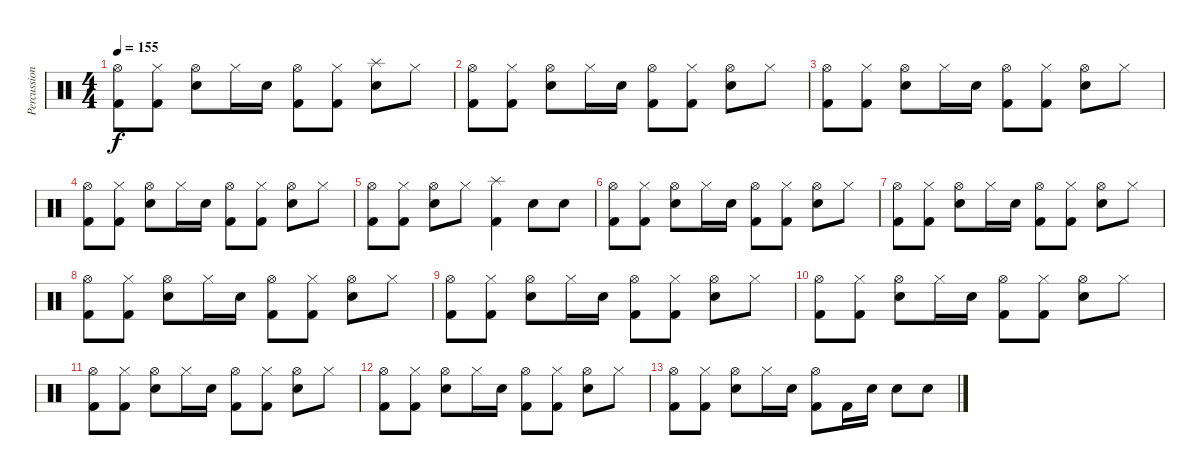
\track ("Percussion" "Percussion") {instrument percussion}
\staff {score}
\articulation defaults
\ts (4 4)
\tempo 155
\clef neutral
\ks c
("Hi-Hat (open)" "Kick (hit) 2").8{dy f} ("Hi-Hat (closed)" "Kick (hit) 2").8 ("Hi-Hat (open)" "Snare (hit) 2").8 "Hi-Hat (closed)".16 "Snare (hit) 2".16 ("Hi-Hat (open)" "Kick (hit) 2").8 ("Hi-Hat (closed)" "Kick (hit) 2").8 ("Splash (hit)" "Snare (hit) 2").8 "Hi-Hat (closed)".8 |
("Hi-Hat (open)" "Kick (hit) 2").8 ("Hi-Hat (closed)" "Kick (hit) 2").8 ("Hi-Hat (open)" "Snare (hit) 2").8 "Hi-Hat (closed)".16 "Snare (hit) 2".16 ("Hi-Hat (open)" "Kick (hit) 2").8 ("Hi-Hat (closed)" "Kick (hit) 2").8 ("Hi-Hat (open)" "Snare (hit) 2").8 "Hi-Hat (closed)".8 |
("Hi-Hat (open)" "Kick (hit) 2").8 ("Hi-Hat (closed)" "Kick (hit) 2").8 ("Hi-Hat (open)" "Snare (hit) 2").8 "Hi-Hat (closed)".16 "Snare (hit) 2".16 ("Hi-Hat (open)" "Kick (hit) 2").8 ("Hi-Hat (closed)" "Kick (hit) 2").8 ("Hi-Hat (open)" "Snare (hit) 2").8 "Hi-Hat (closed)".8 |
("Hi-Hat (open)" "Kick (hit) 2").8 ("Hi-Hat (closed)" "Kick (hit) 2").8 ("Hi-Hat (open)" "Snare (hit) 2").8 "Hi-Hat (closed)".16 "Snare (hit) 2".16 ("Hi-Hat (open)" "Kick (hit) 2").8 ("Hi-Hat (closed)" "Kick (hit) 2").8 ("Hi-Hat (open)" "Snare (hit) 2").8 "Hi-Hat (closed)".8 |
("Hi-Hat (open)" "Kick (hit) 2").8 ("Hi-Hat (closed)" "Kick (hit) 2").8 ("Hi-Hat (open)" "Snare (hit) 2").8 "Hi-Hat (closed)".8 ("Splash (hit)" "Kick (hit) 2").4 "Snare (hit) 2".8 "Snare (hit) 2".8 |
("Hi-Hat (open)" "Kick (hit) 2").8 ("Hi-Hat (closed)" "Kick (hit) 2").8 ("Hi-Hat (open)" "Snare (hit) 2").8 "Hi-Hat (closed)".16 "Snare (hit) 2".16 ("Hi-Hat (open)" "Kick (hit) 2").8 ("Hi-Hat (closed)" "Kick (hit) 2").8 ("Hi-Hat (open)" "Snare (hit) 2").8 "Hi-Hat (closed)".8 |
("Hi-Hat (open)" "Kick (hit) 2").8 ("Hi-Hat (closed)" "Kick (hit) 2").8 ("Hi-Hat (open)" "Snare (hit) 2").8 "Hi-Hat (closed)".16 "Snare (hit) 2".16 ("Hi-Hat (open)" "Kick (hit) 2").8 ("Hi-Hat (closed)" "Kick (hit) 2").8 ("Hi-Hat (open)" "Snare (hit) 2").8 "Hi-Hat (closed)".8 |
("Hi-Hat (open)" "Kick (hit) 2").8 ("Hi-Hat (closed)" "Kick (hit) 2").8 ("Hi-Hat (open)" "Snare (hit) 2").8 "Hi-Hat (closed)".16 "Snare (hit) 2".16 ("Hi-Hat (open)" "Kick (hit) 2").8 ("Hi-Hat (closed)" "Kick (hit) 2").8 ("Hi-Hat (open)" "Snare (hit) 2").8 "Hi-Hat (closed)".8 |
("Hi-Hat (open)" "Kick (hit) 2").8 ("Hi-Hat (closed)" "Kick (hit) 2").8 ("Hi-Hat (open)" "Snare (hit) 2").8 "Hi-Hat (closed)".16 "Snare (hit) 2".16 ("Hi-Hat (open)" "Kick (hit) 2").8 ("Hi-Hat (closed)" "Kick (hit) 2").8 ("Hi-Hat (open)" "Snare (hit) 2").8 "Hi-Hat (closed)".8 |
("Hi-Hat (open)" "Kick (hit) 2").8 ("Hi-Hat (closed)" "Kick (hit) 2").8 ("Hi-Hat (open)" "Snare (hit) 2").8 "Hi-Hat (closed)".16 "Snare (hit) 2".16 ("Hi-Hat (open)" "Kick (hit) 2").8 ("Hi-Hat (closed)" "Kick (hit) 2").8 ("Hi-Hat (open)" "Snare (hit) 2").8 "Hi-Hat (closed)".8 |
("Hi-Hat (open)" "Kick (hit) 2").8 ("Hi-Hat (closed)" "Kick (hit) 2").8 ("Hi-Hat (open)" "Snare (hit) 2").8 "Hi-Hat (closed)".16 "Snare (hit) 2".16 ("Hi-Hat (open)" "Kick (hit) 2").8 ("Hi-Hat (closed)" "Kick (hit) 2").8 ("Hi-Hat (open)" "Snare (hit) 2").8 "Hi-Hat (closed)".8 |
("Hi-Hat (open)" "Kick (hit) 2").8 ("Hi-Hat (closed)" "Kick (hit) 2").8 ("Hi-Hat (open)" "Snare (hit) 2").8 "Hi-Hat (closed)".16 "Snare (hit) 2".16 ("Hi-Hat (open)" "Kick (hit) 2").8 ("Hi-Hat (closed)" "Kick (hit) 2").8 ("Hi-Hat (open)" "Snare (hit) 2").8 "Hi-Hat (closed)".8 |
("Hi-Hat (open)" "Kick (hit) 2").8 ("Hi-Hat (closed)" "Kick (hit) 2").8 ("Hi-Hat (open)" "Snare (hit) 2").8 "Hi-Hat (closed)".16 "Snare (hit) 2".16 ("Hi-Hat (open)" "Kick (hit) 2").8 "Kick (hit) 2".16 "Snare (hit) 2".16 "Snare (hit) 2".8 "Snare (hit) 2".8
